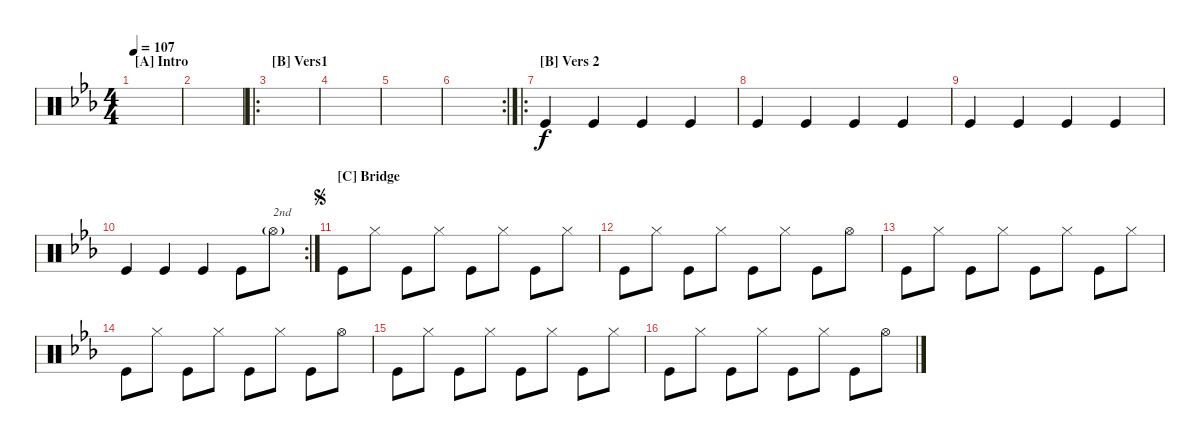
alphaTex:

\defaultSystemsLayout 4
\bracketExtendMode groupsimilarinstruments
\singleTrackTrackNamePolicy hidden
\firstSystemTrackNameOrientation horizontal
\otherSystemsTrackNameOrientation horizontal
\chordDiagramsInScore
\track ("Drumkit" "Drums") {instrument percussion}
\staff {score}
\articulation defaults
\ts (4 4)
\section ("A" "Intro")
\ac
\tempo 107
\clef neutral
\scale
0.485492
\ks cminor
|
\scale
0.514124 |
\ro
\section ("B" "Vers1")
\scale
0.327117 |
\scale
0.253198 |
\scale
0.193789 |
\rc 2
\scale
0.225861 |
\ro
\section ("B" "Vers 2")
"Kick (hit)".4 "Kick (hit)".4 "Kick (hit)".4 "Kick (hit)".4 |
"Kick (hit)".4 "Kick (hit)".4 "Kick (hit)".4 "Kick (hit)".4 |
"Kick (hit)".4 "Kick (hit)".4 "Kick (hit)".4 "Kick (hit)".4 |
\rc 2 "Kick (hit)".4 "Kick (hit)".4 "Kick (hit)".4 "Kick (hit)".8 "Hi-Hat (open)"{g}.8{txt "2nd"}
|
\section ("C" "Bridge")
\jump segno "Kick (hit)".8 "Hi-Hat (closed)".8 "Kick (hit)".8 "Hi-Hat (closed)".8 "Kick (hit)".8 "Hi-Hat (closed)".8 "Kick (hit)".8 "Hi-Hat (closed)".8
|
"Kick (hit)".8 "Hi-Hat (closed)".8 "Kick (hit)".8 "Hi-Hat (closed)".8 "Kick (hit)".8 "Hi-Hat (closed)".8 "Kick (hit)".8 "Hi-Hat (open)".8 |
"Kick (hit)".8 "Hi-Hat (closed)".8 "Kick (hit)".8 "Hi-Hat (closed)".8 "Kick (hit)".8 "Hi-Hat (closed)".8 "Kick (hit)".8 "Hi-Hat (closed)".8 |
"Kick (hit)".8 "Hi-Hat (closed)".8 "Kick (hit)".8 "Hi-Hat (closed)".8 "Kick (hit)".8 "Hi-Hat (closed)".8 "Kick (hit)".8 "Hi-Hat (open)".8 |
"Kick (hit)".8 "Hi-Hat (closed)".8 "Kick (hit)".8 "Hi-Hat (closed)".8 "Kick (hit)".8 "Hi-Hat (closed)".8 "Kick (hit)".8 "Hi-Hat (closed)".8 |
"Kick (hit)".8 "Hi-Hat (closed)".8 "Kick (hit)".8 "Hi-Hat (closed)".8 "Kick (hit)".8 "Hi-Hat (closed)".8 "Kick (hit)".8 "Hi-Hat (open)".8
